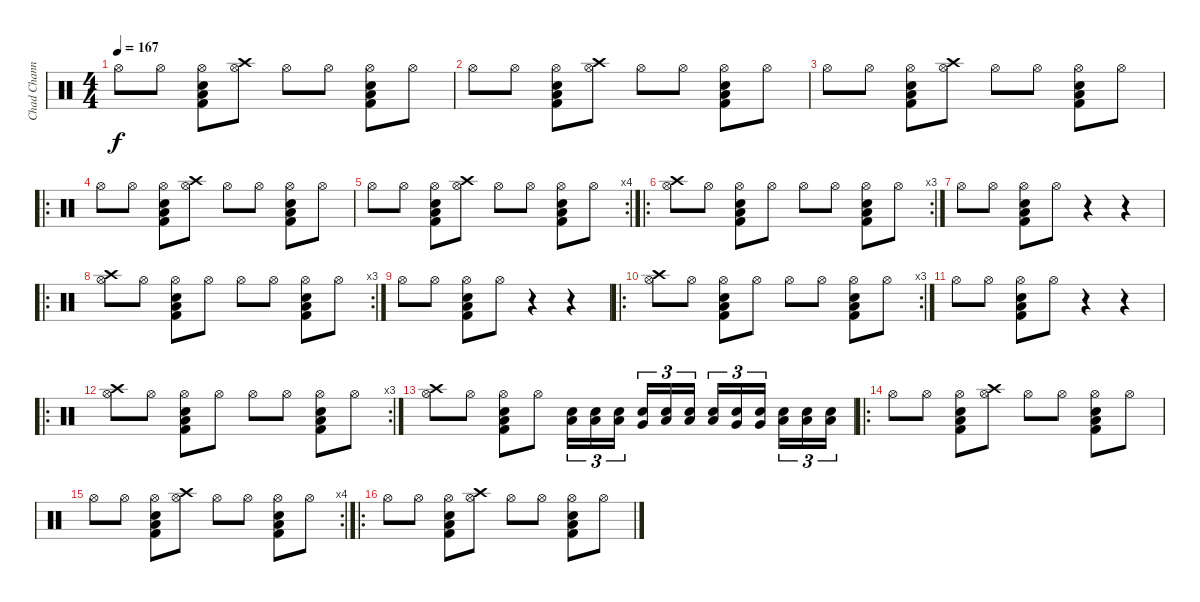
\track ("Chad Channing" "Chad Chann") {instrument percussion}
\staff {score}
\articulation defaults
\ts (4 4)
\tempo 167
\clef neutral
\ks c "Hi-Hat (open)".8{dy f} "Hi-Hat (open)".8
("Snare (hit) 2" "Low Tom (hit)" "Hi-Hat (open)" "Kick (hit) 2").8 ("Crash high (hit)" "Hi-Hat (open)").8 "Hi-Hat (open)".8 "Hi-Hat (open)".8 ("Snare (hit) 2" "Low Tom (hit)" "Hi-Hat (open)" "Kick (hit) 2").8 "Hi-Hat (open)".8 |
"Hi-Hat (open)".8 "Hi-Hat (open)".8 ("Snare (hit) 2" "Low Tom (hit)" "Hi-Hat (open)" "Kick (hit) 2").8 ("Crash high (hit)" "Hi-Hat (open)").8 "Hi-Hat (open)".8 "Hi-Hat (open)".8 ("Snare (hit) 2" "Low Tom (hit)" "Hi-Hat (open)" "Kick (hit) 2").8 "Hi-Hat (open)".8 |
"Hi-Hat (open)".8 "Hi-Hat (open)".8 ("Snare (hit) 2" "Low Tom (hit)" "Hi-Hat (open)" "Kick (hit) 2").8 ("Crash high (hit)" "Hi-Hat (open)").8 "Hi-Hat (open)".8 "Hi-Hat (open)".8 ("Snare (hit) 2" "Low Tom (hit)" "Hi-Hat (open)" "Kick (hit) 2").8 "Hi-Hat (open)".8 |
\ro "Hi-Hat (open)".8 "Hi-Hat (open)".8
("Snare (hit) 2" "Low Tom (hit)" "Hi-Hat (open)" "Kick (hit) 2").8 ("Crash high (hit)" "Hi-Hat (open)").8 "Hi-Hat (open)".8 "Hi-Hat (open)".8 ("Snare (hit) 2" "Low Tom (hit)" "Hi-Hat (open)" "Kick (hit) 2").8 "Hi-Hat (open)".8 |
\rc 4 "Hi-Hat (open)".8 "Hi-Hat (open)".8
("Snare (hit) 2" "Low Tom (hit)" "Hi-Hat (open)" "Kick (hit) 2").8 ("Crash high (hit)" "Hi-Hat (open)").8 "Hi-Hat (open)".8 "Hi-Hat (open)".8 ("Snare (hit) 2" "Low Tom (hit)" "Hi-Hat (open)" "Kick (hit) 2").8 "Hi-Hat (open)".8 |
\ro
\rc 3
("Crash high (hit)" "Hi-Hat (open)").8 "Hi-Hat (open)".8 ("Snare (hit) 2" "Hi-Hat (open)" "Low Tom (hit)" "Kick (hit) 2").8 "Hi-Hat (open)".8 "Hi-Hat (open)".8 "Hi-Hat (open)".8 ("Snare (hit) 2" "Hi-Hat (open)" "Low Tom (hit)" "Kick (hit) 2").8 "Hi-Hat (open)".8 |
"Hi-Hat (open)".8 "Hi-Hat (open)".8 ("Snare (hit) 2" "Hi-Hat (open)" "Kick (hit) 2" "Low Tom (hit)").8 "Hi-Hat (open)".8 r.4 r.4 |
\ro
\rc 3
("Crash high (hit)" "Hi-Hat (open)").8 "Hi-Hat (open)".8 ("Snare (hit) 2" "Hi-Hat (open)" "Low Tom (hit)" "Kick (hit) 2").8 "Hi-Hat (open)".8 "Hi-Hat (open)".8 "Hi-Hat (open)".8 ("Snare (hit) 2" "Hi-Hat (open)" "Low Tom (hit)" "Kick (hit) 2").8 "Hi-Hat (open)".8 |
"Hi-Hat (open)".8 "Hi-Hat (open)".8 ("Snare (hit) 2" "Hi-Hat (open)" "Kick (hit) 2" "Low Tom (hit)").8 "Hi-Hat (open)".8 r.4 r.4 |
\ro
\rc 3
("Crash high (hit)" "Hi-Hat (open)").8 "Hi-Hat (open)".8 ("Snare (hit) 2" "Hi-Hat (open)" "Low Tom (hit)" "Kick (hit) 2").8 "Hi-Hat (open)".8 "Hi-Hat (open)".8 "Hi-Hat (open)".8 ("Snare (hit) 2" "Hi-Hat (open)" "Low Tom (hit)" "Kick (hit) 2").8 "Hi-Hat (open)".8 |
"Hi-Hat (open)".8 "Hi-Hat (open)".8 ("Snare (hit) 2" "Hi-Hat (open)" "Kick (hit) 2" "Low Tom (hit)").8 "Hi-Hat (open)".8 r.4 r.4 |
\ro
\rc 3
("Crash high (hit)" "Hi-Hat (open)").8 "Hi-Hat (open)".8 ("Snare (hit) 2" "Hi-Hat (open)" "Low Tom (hit)" "Kick (hit) 2").8 "Hi-Hat (open)".8 "Hi-Hat (open)".8 "Hi-Hat (open)".8 ("Snare (hit) 2" "Hi-Hat (open)" "Low Tom (hit)" "Kick (hit) 2").8 "Hi-Hat (open)".8 |
("Crash high (hit)" "Hi-Hat (open)").8 "Hi-Hat (open)".8 ("Snare (hit) 2" "Hi-Hat (open)" "Low Tom (hit)" "Kick (hit) 2").8 "Hi-Hat (open)".8 ("Low Tom (hit)" "Snare (hit) 2").16{tu (3 2)} ("Low Tom (hit)" "Snare (hit) 2").16{tu (3 2)} ("Low Floor Tom (hit)" "Snare (hit) 2").16{tu (3 2)} ("Very Low Tom (hit)" "Snare (hit) 2").16{tu (3 2)} ("Low Tom (hit)" "Snare (hit) 2").16{tu (3 2)} ("Low Tom (hit)" "Snare (hit) 2").16{tu (3 2)} ("Low Floor Tom (hit)" "Snare (hit) 2").16{tu (3 2)} ("Very Low Tom (hit)" "Snare (hit) 2").16{tu (3 2)} ("Very Low Tom (hit)" "Snare (hit) 2").16{tu (3 2)} ("Low Tom (hit)" "Snare (hit) 2").16{tu (3 2)} ("Low Tom (hit)" "Snare (hit) 2").16{tu (3 2)} ("Low Tom (hit)" "Snare (hit) 2").16{tu (3 2)} |
\ro "Hi-Hat (open)".8 "Hi-Hat (open)".8
("Snare (hit) 2" "Low Tom (hit)" "Hi-Hat (open)" "Kick (hit) 2").8 ("Crash high (hit)" "Hi-Hat (open)").8 "Hi-Hat (open)".8 "Hi-Hat (open)".8 ("Snare (hit) 2" "Low Tom (hit)" "Hi-Hat (open)" "Kick (hit) 2").8 "Hi-Hat (open)".8 |
\rc 4 "Hi-Hat (open)".8 "Hi-Hat (open)".8
("Snare (hit) 2" "Low Tom (hit)" "Hi-Hat (open)" "Kick (hit) 2").8 ("Crash high (hit)" "Hi-Hat (open)").8 "Hi-Hat (open)".8 "Hi-Hat (open)".8 ("Snare (hit) 2" "Low Tom (hit)" "Hi-Hat (open)" "Kick (hit) 2").8 "Hi-Hat (open)".8 |
\ro "Hi-Hat (open)".8 "Hi-Hat (open)".8
("Snare (hit) 2" "Low Tom (hit)" "Hi-Hat (open)" "Kick (hit) 2").8 ("Crash high (hit)" "Hi-Hat (open)").8 "Hi-Hat (open)".8 "Hi-Hat (open)".8 ("Snare (hit) 2" "Low Tom (hit)" "Hi-Hat (open)" "Kick (hit) 2").8 "Hi-Hat (open)".8
